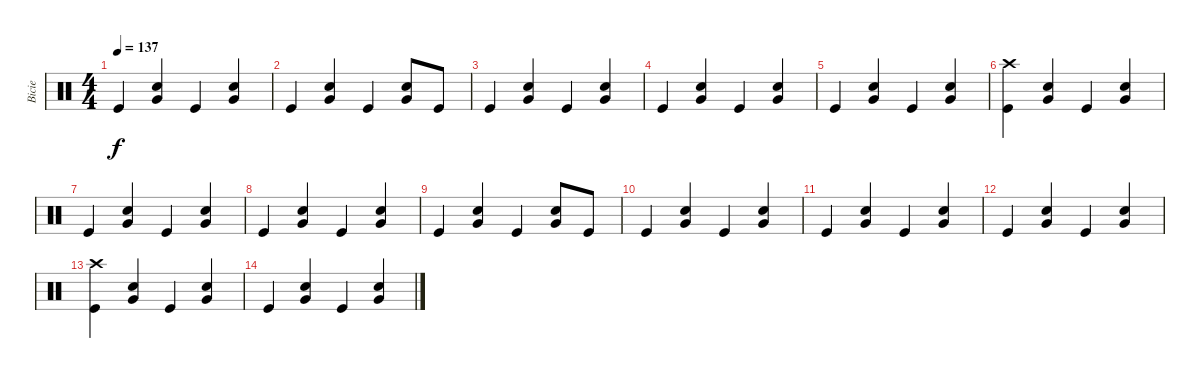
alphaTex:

\track ("Bicie" "Bicie") {instrument percussion}
\staff {score}
\articulation defaults
\ts (4 4)
\tempo 137
\clef neutral
\ks c "Kick (hit)".4{dy f}
("Very Low Tom (hit)" "Snare (hit) 2").4 "Kick (hit)".4 ("Very Low Tom (hit)" "Snare (hit) 2").4 |
"Kick (hit)".4 ("Very Low Tom (hit)" "Snare (hit) 2").4 "Kick (hit)".4 ("Very Low Tom (hit)" "Snare (hit) 2").8 "Kick (hit)".8 |
"Kick (hit)".4 ("Very Low Tom (hit)" "Snare (hit) 2").4 "Kick (hit)".4 ("Very Low Tom (hit)" "Snare (hit) 2").4 |
"Kick (hit)".4 ("Very Low Tom (hit)" "Snare (hit) 2").4 "Kick (hit)".4 ("Very Low Tom (hit)" "Snare (hit) 2").4 |
"Kick (hit)".4 ("Very Low Tom (hit)" "Snare (hit) 2").4 "Kick (hit)".4 ("Very Low Tom (hit)" "Snare (hit) 2").4 |
("Crash high (hit)" "Kick (hit)").4 ("Very Low Tom (hit)" "Snare (hit) 2").4 "Kick (hit)".4 ("Very Low Tom (hit)" "Snare (hit) 2").4 |
"Kick (hit)".4 ("Very Low Tom (hit)" "Snare (hit) 2").4 "Kick (hit)".4 ("Very Low Tom (hit)" "Snare (hit) 2").4 |
"Kick (hit)".4 ("Very Low Tom (hit)" "Snare (hit) 2").4 "Kick (hit)".4 ("Very Low Tom (hit)" "Snare (hit) 2").4 |
"Kick (hit)".4 ("Very Low Tom (hit)" "Snare (hit) 2").4 "Kick (hit)".4 ("Very Low Tom (hit)" "Snare (hit) 2").8 "Kick (hit)".8 |
"Kick (hit)".4 ("Very Low Tom (hit)" "Snare (hit) 2").4 "Kick (hit)".4 ("Very Low Tom (hit)" "Snare (hit) 2").4 |
"Kick (hit)".4 ("Very Low Tom (hit)" "Snare (hit) 2").4 "Kick (hit)".4 ("Very Low Tom (hit)" "Snare (hit) 2").4 |
"Kick (hit)".4 ("Very Low Tom (hit)" "Snare (hit) 2").4 "Kick (hit)".4 ("Very Low Tom (hit)" "Snare (hit) 2").4 |
("Crash high (hit)" "Kick (hit)").4 ("Very Low Tom (hit)" "Snare (hit) 2").4 "Kick (hit)".4 ("Very Low Tom (hit)" "Snare (hit) 2").4 |
"Kick (hit)".4 ("Very Low Tom (hit)" "Snare (hit) 2").4 "Kick (hit)".4 ("Very Low Tom (hit)" "Snare (hit) 2").4
